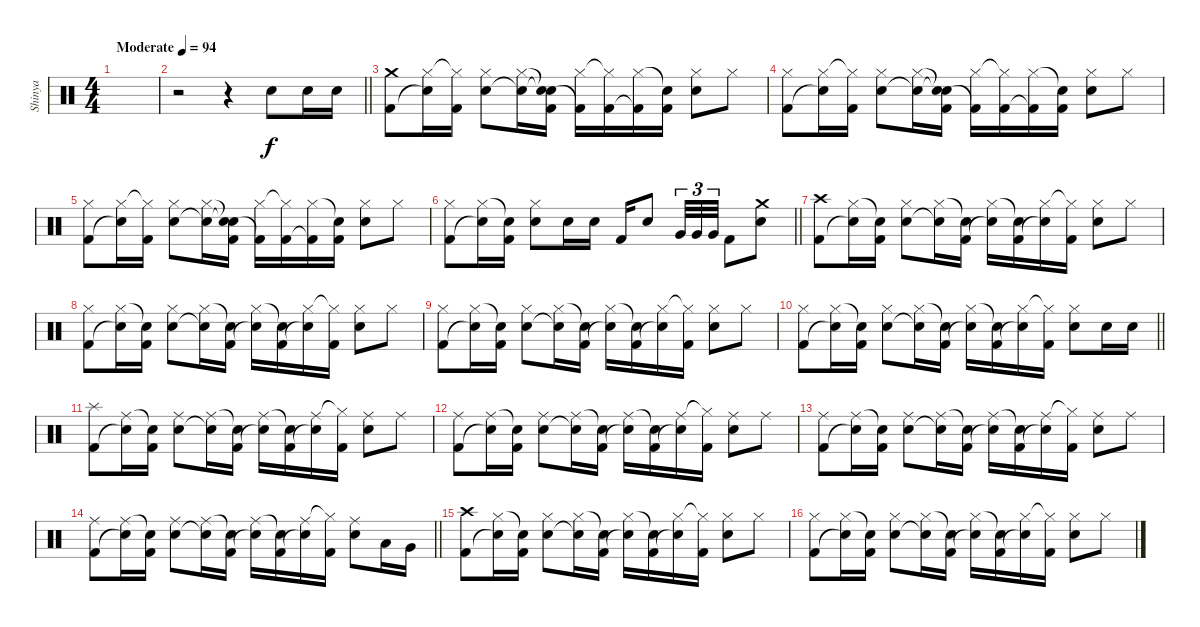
\track ("Shinya" "Shinya") {instrument percussion}
\staff {score}
\articulation defaults
\ts (4 4)
\tempo (94 "Moderate")
\clef neutral
\ks c
|
\barLineRight lightlight
r.2 r.4 "Snare (hit) 2".8{volume 9} "Snare (hit) 2".16 "Snare (hit) 2".16 |
("Crash medium (hit)" "Kick (hit) 2").8 ("Hi-Hat (closed)" "Snare (hit)"{t}).16 ("Hi-Hat (closed)"{t} "Kick (hit) 2").16 ("Hi-Hat (closed)" "Snare (hit) 2").8 ("Hi-Hat (closed)" "Snare (hit)"{t}).16 ("Snare (hit)"{t} "Snare (hit)"{t} "Kick (hit) 2").16 ("Hi-Hat (closed)" "Kick (hit) 2"{t}).16 ("Hi-Hat (closed)"{t} "Kick (hit) 2").16 ("Hi-Hat (closed)" "Kick (hit) 2"{t}).16 ("Snare (hit) 2"{t} "Kick (hit) 2").16 ("Hi-Hat (closed)" "Snare (hit) 2").8 "Hi-Hat (closed)".8 |
("Hi-Hat (closed)" "Kick (hit) 2").8 ("Hi-Hat (closed)" "Snare (hit)"{t}).16 ("Hi-Hat (closed)"{t} "Kick (hit) 2").16 ("Hi-Hat (closed)" "Snare (hit) 2").8 ("Hi-Hat (closed)" "Snare (hit)"{t}).16 ("Snare (hit)"{t} "Snare (hit)"{t} "Kick (hit) 2").16 ("Hi-Hat (closed)" "Kick (hit) 2"{t}).16 ("Hi-Hat (closed)"{t} "Kick (hit) 2").16 ("Hi-Hat (closed)" "Kick (hit) 2"{t}).16 ("Snare (hit) 2"{t} "Kick (hit) 2").16 ("Hi-Hat (closed)" "Snare (hit) 2").8 "Hi-Hat (closed)".8 |
("Hi-Hat (closed)" "Kick (hit) 2").8 ("Hi-Hat (closed)" "Snare (hit)"{t}).16 ("Hi-Hat (closed)"{t} "Kick (hit) 2").16 ("Hi-Hat (closed)" "Snare (hit) 2").8 ("Hi-Hat (closed)" "Snare (hit)"{t}).16 ("Snare (hit)"{t} "Snare (hit)"{t} "Kick (hit) 2").16 ("Hi-Hat (closed)" "Kick (hit) 2"{t}).16 ("Hi-Hat (closed)"{t} "Kick (hit) 2").16 ("Hi-Hat (closed)" "Kick (hit) 2"{t}).16 ("Snare (hit) 2"{t} "Kick (hit) 2").16 ("Hi-Hat (closed)" "Snare (hit) 2").8 "Hi-Hat (closed)".8 |
\barLineRight lightlight
("Hi-Hat (closed)" "Kick (hit) 2").8 ("Hi-Hat (closed)" "Snare (hit)"{t}).16 ("Snare (hit)"{t} "Kick (hit) 2").16 ("Hi-Hat (closed)" "Snare (hit) 2").8 "Snare (hit) 2".16 "Snare (hit) 2".16 "Kick (hit) 2".16 "Snare (hit) 2".8 "Very Low Tom (hit)".32{tu (3 2)} "Very Low Tom (hit)".32{tu (3 2)} "Very Low Tom (hit)".32{tu (3 2)} "Kick (hit) 2".8 ("Crash medium (hit)" "Snare (hit) 2").8 |
("Crash high (hit)" "Kick (hit) 2").8 ("Hi-Hat (closed)" "Snare (hit)"{t}).16 ("Snare (hit)"{t} "Kick (hit) 2").16 ("Hi-Hat (closed)" "Snare (hit) 2").8 ("Hi-Hat (closed)" "Snare (hit)"{t}).16 ("Snare (hit)"{t} "Kick (hit) 2").16 ("Hi-Hat (closed)" "Snare (hit)"{t}).16 ("Snare (hit)"{t} "Kick (hit) 2").16 ("Hi-Hat (closed)" "Snare (hit)"{t}).16 ("Hi-Hat (closed)"{t} "Kick (hit) 2").16 ("Hi-Hat (closed)" "Snare (hit) 2").8 "Hi-Hat (closed)".8 |
("Hi-Hat (closed)" "Kick (hit) 2").8 ("Hi-Hat (closed)" "Snare (hit)"{t}).16 ("Snare (hit)"{t} "Kick (hit) 2").16 ("Hi-Hat (closed)" "Snare (hit) 2").8 ("Hi-Hat (closed)" "Snare (hit)"{t}).16 ("Snare (hit)"{t} "Kick (hit) 2").16 ("Hi-Hat (closed)" "Snare (hit)"{t}).16 ("Snare (hit)"{t} "Kick (hit) 2").16 ("Hi-Hat (closed)" "Snare (hit)"{t}).16 ("Hi-Hat (closed)"{t} "Kick (hit) 2").16 ("Hi-Hat (closed)" "Snare (hit) 2").8 "Hi-Hat (closed)".8 |
("Hi-Hat (closed)" "Kick (hit) 2").8 ("Hi-Hat (closed)" "Snare (hit)"{t}).16 ("Snare (hit)"{t} "Kick (hit) 2").16 ("Hi-Hat (closed)" "Snare (hit) 2").8 ("Hi-Hat (closed)" "Snare (hit)"{t}).16 ("Snare (hit)"{t} "Kick (hit) 2").16 ("Hi-Hat (closed)" "Snare (hit)"{t}).16 ("Snare (hit)"{t} "Kick (hit) 2").16 ("Hi-Hat (closed)" "Snare (hit)"{t}).16 ("Hi-Hat (closed)"{t} "Kick (hit) 2").16 ("Hi-Hat (closed)" "Snare (hit) 2").8 "Hi-Hat (closed)".8 |
\barLineRight lightlight
("Hi-Hat (closed)" "Kick (hit) 2").8 ("Hi-Hat (closed)" "Snare (hit)"{t}).16 ("Snare (hit)"{t} "Kick (hit) 2").16 ("Hi-Hat (closed)" "Snare (hit) 2").8 ("Hi-Hat (closed)" "Snare (hit)"{t}).16 ("Snare (hit)"{t} "Kick (hit) 2").16 ("Hi-Hat (closed)" "Snare (hit)"{t}).16 ("Snare (hit)"{t} "Kick (hit) 2").16 ("Hi-Hat (closed)" "Snare (hit)"{t}).16 ("Hi-Hat (closed)"{t} "Kick (hit) 2").16 ("Hi-Hat (closed)" "Snare (hit) 2").8 "Snare (hit) 2".16 "Snare (hit) 2".16 |
("Splash (hit)" "Kick (hit) 2").8 ("Ride (middle)" "Snare (hit)"{t}).16 ("Snare (hit)"{t} "Kick (hit) 2").16 ("Ride (middle)" "Snare (hit) 2").8 ("Ride (middle)" "Snare (hit)"{t}).16 ("Snare (hit)"{t} "Kick (hit) 2").16 ("Ride (middle)" "Snare (hit)"{t}).16 ("Snare (hit)"{t} "Kick (hit) 2").16 ("Ride (middle)" "Snare (hit)"{t}).16 ("Hi-Hat (closed)"{t} "Kick (hit) 2").16 ("Ride (middle)" "Snare (hit) 2").8 "Ride (middle)".8 |
("Ride (middle)" "Kick (hit) 2").8 ("Ride (middle)" "Snare (hit)"{t}).16 ("Snare (hit)"{t} "Kick (hit) 2").16 ("Ride (middle)" "Snare (hit) 2").8 ("Ride (middle)" "Snare (hit)"{t}).16 ("Snare (hit)"{t} "Kick (hit) 2").16 ("Ride (middle)" "Snare (hit)"{t}).16 ("Snare (hit)"{t} "Kick (hit) 2").16 ("Ride (middle)" "Snare (hit)"{t}).16 ("Hi-Hat (closed)"{t} "Kick (hit) 2").16 ("Ride (middle)" "Snare (hit) 2").8 "Ride (middle)".8 |
("Ride (middle)" "Kick (hit) 2").8 ("Ride (middle)" "Snare (hit)"{t}).16 ("Snare (hit)"{t} "Kick (hit) 2").16 ("Ride (middle)" "Snare (hit) 2").8 ("Ride (middle)" "Snare (hit)"{t}).16 ("Snare (hit)"{t} "Kick (hit) 2").16 ("Ride (middle)" "Snare (hit)"{t}).16 ("Snare (hit)"{t} "Kick (hit) 2").16 ("Ride (middle)" "Snare (hit)"{t}).16 ("Hi-Hat (closed)"{t} "Kick (hit) 2").16 ("Ride (middle)" "Snare (hit) 2").8 "Ride (middle)".8 |
\barLineRight lightlight
("Ride (middle)" "Kick (hit) 2").8 ("Ride (middle)" "Snare (hit)"{t}).16 ("Snare (hit)"{t} "Kick (hit) 2").16 ("Ride (middle)" "Snare (hit) 2").8 ("Ride (middle)" "Snare (hit)"{t}).16 ("Snare (hit)"{t} "Kick (hit) 2").16 ("Ride (middle)" "Snare (hit)"{t}).16 ("Snare (hit)"{t} "Kick (hit) 2").16 ("Ride (middle)" "Snare (hit)"{t}).16 ("Hi-Hat (closed)"{t} "Kick (hit) 2").16 ("Ride (middle)" "Snare (hit) 2").8 "Low Tom (hit)".16 "Very Low Tom (hit)".16 |
("Crash high (hit)" "Kick (hit) 2").8 ("Hi-Hat (closed)" "Snare (hit)"{t}).16 ("Snare (hit)"{t} "Kick (hit) 2").16 ("Hi-Hat (closed)" "Snare (hit) 2").8 ("Hi-Hat (closed)" "Snare (hit)"{t}).16 ("Snare (hit)"{t} "Kick (hit) 2").16 ("Hi-Hat (closed)" "Snare (hit)"{t}).16 ("Snare (hit)"{t} "Kick (hit) 2").16 ("Hi-Hat (closed)" "Snare (hit)"{t}).16 ("Hi-Hat (closed)"{t} "Kick (hit) 2").16 ("Hi-Hat (closed)" "Snare (hit) 2").8 "Hi-Hat (closed)".8 |
("Hi-Hat (closed)" "Kick (hit) 2").8 ("Hi-Hat (closed)" "Snare (hit)"{t}).16 ("Snare (hit)"{t} "Kick (hit) 2").16 ("Hi-Hat (closed)" "Snare (hit) 2").8 ("Hi-Hat (closed)" "Snare (hit)"{t}).16 ("Snare (hit)"{t} "Kick (hit) 2").16 ("Hi-Hat (closed)" "Snare (hit)"{t}).16 ("Snare (hit)"{t} "Kick (hit) 2").16 ("Hi-Hat (closed)" "Snare (hit)"{t}).16 ("Hi-Hat (closed)"{t} "Kick (hit) 2").16 ("Hi-Hat (closed)" "Snare (hit) 2").8 "Hi-Hat (closed)".8
